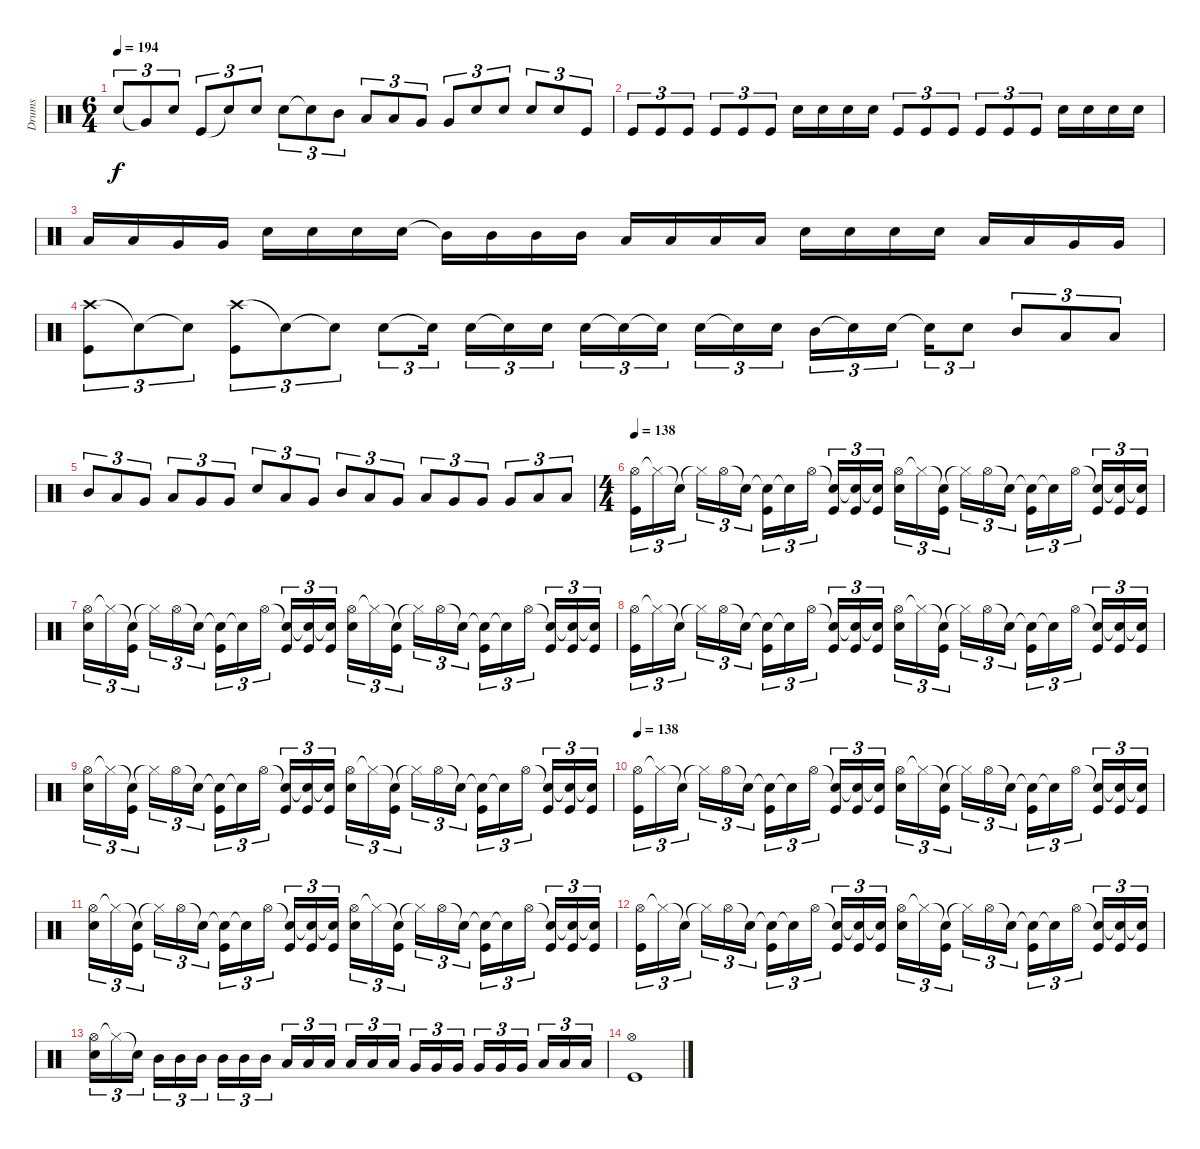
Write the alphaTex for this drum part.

\track ("Drums" "Drums") {instrument percussion}
\staff {score}
\articulation defaults
\ts (6 4)
\tempo 194
\clef neutral
\ks c "Electric Snare (hit)".8{tu (3 2) dy f} "Very Low Tom (hit)"{t}.8{tu (3 2)} "Electric Snare (hit)".8{tu (3 2)} "Kick (hit)".8{tu (3 2)} "Electric Snare (hit)"{t}.8{tu (3 2)} "Electric Snare (hit)".8{tu (3 2)} "Electric Snare (hit)".8{tu (3 2)} "Snare (hit)"{t}.8{tu (3 2)} "Mid Tom (hit)".8{tu (3 2)} "Low Tom (hit)".8{tu (3 2)} "Low Tom (hit)".8{tu (3 2)} "Very Low Tom (hit)".8{tu (3 2)} "Very Low Tom (hit)".8{tu (3 2)} "Electric Snare (hit)".8{tu (3 2)} "Electric Snare (hit)".8{tu (3 2)} "Electric Snare (hit)".8{tu (3 2)} "Electric Snare (hit)".8{tu (3 2)} "Kick (hit)".8{tu (3 2)}
|
"Kick (hit)".8{tu (3 2)} "Kick (hit)".8{tu (3 2)} "Kick (hit)".8{tu (3 2)} "Kick (hit)".8{tu (3 2)} "Kick (hit)".8{tu (3 2)} "Kick (hit)".8{tu (3 2)} "Electric Snare (hit)".16 "Electric Snare (hit)".16 "Electric Snare (hit)".16 "Electric Snare (hit)".16 "Kick (hit)".8{tu (3 2)} "Kick (hit)".8{tu (3 2)} "Kick (hit)".8{tu (3 2)} "Kick (hit)".8{tu (3 2)} "Kick (hit)".8{tu (3 2)} "Kick (hit)".8{tu (3 2)} "Electric Snare (hit)".16 "Electric Snare (hit)".16 "Electric Snare (hit)".16 "Electric Snare (hit)".16 |
"Low Tom (hit)".16 "Low Tom (hit)".16 "Very Low Tom (hit)".16 "Very Low Tom (hit)".16 "Electric Snare (hit)".16 "Electric Snare (hit)".16 "Electric Snare (hit)".16 "Electric Snare (hit)".16 "Mid Tom (hit)"{t}.16 "Mid Tom (hit)".16 "Mid Tom (hit)".16 "Mid Tom (hit)".16 "Low Tom (hit)".16 "Low Tom (hit)".16 "Low Tom (hit)".16 "Low Tom (hit)".16 "Electric Snare (hit)".16 "Electric Snare (hit)".16 "Electric Snare (hit)".16 "Electric Snare (hit)".16 "Low Tom (hit)".16 "Low Tom (hit)".16 "Very Low Tom (hit)".16 "Very Low Tom (hit)".16 |
("Crash high (hit)" "Kick (hit)").8{tu (3 2)} "Snare (hit)"{t}.8{tu (3 2)} "Snare (hit)"{t}.8{tu (3 2)} ("Crash high (hit)" "Kick (hit)").8{tu (3 2)} "Snare (hit)"{t}.8{tu (3 2)} "Snare (hit)"{t}.8{tu (3 2)} "Electric Snare (hit)".8{tu (3 2)} "Snare (hit)"{t}.16{tu (3 2)} "Electric Snare (hit)".16{tu (3 2)} "Snare (hit)"{t}.16{tu (3 2)} "Electric Snare (hit)".16{tu (3 2)} "Electric Snare (hit)".16{tu (3 2)} "Electric Snare (hit)"{t}.16{tu (3 2)} "Snare (hit)"{t}.16{tu (3 2)} "Electric Snare (hit)".16{tu (3 2)} "Snare (hit)"{t}.16{tu (3 2)} "Electric Snare (hit)".16{tu (3 2)} "Mid Tom (hit)".16{tu (3 2)} "Snare (hit)"{t}.16{tu (3 2)} "Electric Snare (hit)".16{tu (3 2)} "Snare (hit)"{t}.16{tu (3 2)} "Electric Snare (hit)".8{tu (3 2)} "Mid Tom (hit)".8{tu (3 2)} "Low Tom (hit)".8{tu (3 2)} "Low Tom (hit)".8{tu (3 2)} |
"Mid Tom (hit)".8{tu (3 2)} "Low Tom (hit)".8{tu (3 2)} "Very Low Tom (hit)".8{tu (3 2)} "Low Tom (hit)".8{tu (3 2)} "Very Low Tom (hit)".8{tu (3 2)} "Very Low Tom (hit)".8{tu (3 2)} "Electric Snare (hit)".8{tu (3 2)} "Low Tom (hit)".8{tu (3 2)} "Very Low Tom (hit)".8{tu (3 2)} "Mid Tom (hit)".8{tu (3 2)} "Low Tom (hit)".8{tu (3 2)} "Very Low Tom (hit)".8{tu (3 2)} "Low Tom (hit)".8{tu (3 2)} "Very Low Tom (hit)".8{tu (3 2)} "Very Low Tom (hit)".8{tu (3 2)} "Very Low Tom (hit)".8{tu (3 2)} "Low Floor Tom (hit)".8{tu (3 2)} "Low Floor Tom (hit)".8{tu (3 2)} |
\ts (4 4)
\tempo 138
("Hi-Hat (open)" "Kick (hit)").16{tu (3 2)} "Hi-Hat (closed)"{t}.16{tu (3 2)} "Snare (hit)"{t}.16{tu (3 2)} "Hi-Hat (closed)"{t}.16{tu (3 2)} "Hi-Hat (open)".16{tu (3 2)} "Snare (hit)"{t}.16{tu (3 2)} ("Snare (hit)"{t} "Kick (hit)").16{tu (3 2)} "Snare (hit)"{t}.16{tu (3 2)} "Hi-Hat (open)".16{tu (3 2)} ("Snare (hit)"{t} "Kick (hit)").16{tu (3 2)} ("Snare (hit)"{t} "Kick (hit)").16{tu (3 2)} ("Snare (hit)"{t} "Kick (hit)").16{tu (3 2)} ("Hi-Hat (open)" "Electric Snare (hit)").16{tu (3 2)} "Hi-Hat (closed)"{t}.16{tu (3 2)} ("Snare (hit)"{t} "Kick (hit)").16{tu (3 2)} "Hi-Hat (closed)"{t}.16{tu (3 2)} "Hi-Hat (open)".16{tu (3 2)} "Snare (hit)"{t}.16{tu (3 2)} ("Snare (hit)"{t} "Kick (hit)").16{tu (3 2)} "Snare (hit)"{t}.16{tu (3 2)} "Hi-Hat (open)".16{tu (3 2)} ("Snare (hit)"{t} "Kick (hit)").16{tu (3 2)} ("Snare (hit)"{t} "Kick (hit)").16{tu (3 2)} ("Snare (hit)"{t} "Kick (hit)").16{tu (3 2)} |
("Hi-Hat (open)" "Electric Snare (hit)").16{tu (3 2)} "Hi-Hat (closed)"{t}.16{tu (3 2)} ("Snare (hit)"{t} "Kick (hit)").16{tu (3 2)} "Hi-Hat (closed)"{t}.16{tu (3 2)} "Hi-Hat (open)".16{tu (3 2)} "Snare (hit)"{t}.16{tu (3 2)} ("Snare (hit)"{t} "Kick (hit)").16{tu (3 2)} "Snare (hit)"{t}.16{tu (3 2)} "Hi-Hat (open)".16{tu (3 2)} ("Snare (hit)"{t} "Kick (hit)").16{tu (3 2)} ("Snare (hit)"{t} "Kick (hit)").16{tu (3 2)} ("Snare (hit)"{t} "Kick (hit)").16{tu (3 2)} ("Hi-Hat (open)" "Electric Snare (hit)").16{tu (3 2)} "Hi-Hat (closed)"{t}.16{tu (3 2)} ("Snare (hit)"{t} "Kick (hit)").16{tu (3 2)} "Hi-Hat (closed)"{t}.16{tu (3 2)} "Hi-Hat (open)".16{tu (3 2)} "Snare (hit)"{t}.16{tu (3 2)} ("Snare (hit)"{t} "Kick (hit)").16{tu (3 2)} "Snare (hit)"{t}.16{tu (3 2)} "Hi-Hat (open)".16{tu (3 2)} ("Snare (hit)"{t} "Kick (hit)").16{tu (3 2)} ("Snare (hit)"{t} "Kick (hit)").16{tu (3 2)} ("Snare (hit)"{t} "Kick (hit)").16{tu (3 2)} |
("Hi-Hat (open)" "Kick (hit)").16{tu (3 2)} "Hi-Hat (closed)"{t}.16{tu (3 2)} "Snare (hit)"{t}.16{tu (3 2)} "Hi-Hat (closed)"{t}.16{tu (3 2)} "Hi-Hat (open)".16{tu (3 2)} "Snare (hit)"{t}.16{tu (3 2)} ("Snare (hit)"{t} "Kick (hit)").16{tu (3 2)} "Snare (hit)"{t}.16{tu (3 2)} "Hi-Hat (open)".16{tu (3 2)} ("Snare (hit)"{t} "Kick (hit)").16{tu (3 2)} ("Snare (hit)"{t} "Kick (hit)").16{tu (3 2)} ("Snare (hit)"{t} "Kick (hit)").16{tu (3 2)} ("Hi-Hat (open)" "Electric Snare (hit)").16{tu (3 2)} "Hi-Hat (closed)"{t}.16{tu (3 2)} ("Snare (hit)"{t} "Kick (hit)").16{tu (3 2)} "Hi-Hat (closed)"{t}.16{tu (3 2)} "Hi-Hat (open)".16{tu (3 2)} "Snare (hit)"{t}.16{tu (3 2)} ("Snare (hit)"{t} "Kick (hit)").16{tu (3 2)} "Snare (hit)"{t}.16{tu (3 2)} "Hi-Hat (open)".16{tu (3 2)} ("Snare (hit)"{t} "Kick (hit)").16{tu (3 2)} ("Snare (hit)"{t} "Kick (hit)").16{tu (3 2)} ("Snare (hit)"{t} "Kick (hit)").16{tu (3 2)} |
("Hi-Hat (open)" "Electric Snare (hit)").16{tu (3 2)} "Hi-Hat (closed)"{t}.16{tu (3 2)} ("Snare (hit)"{t} "Kick (hit)").16{tu (3 2)} "Hi-Hat (closed)"{t}.16{tu (3 2)} "Hi-Hat (open)".16{tu (3 2)} "Snare (hit)"{t}.16{tu (3 2)} ("Snare (hit)"{t} "Kick (hit)").16{tu (3 2)} "Snare (hit)"{t}.16{tu (3 2)} "Hi-Hat (open)".16{tu (3 2)} ("Snare (hit)"{t} "Kick (hit)").16{tu (3 2)} ("Snare (hit)"{t} "Kick (hit)").16{tu (3 2)} ("Snare (hit)"{t} "Kick (hit)").16{tu (3 2)} ("Hi-Hat (open)" "Electric Snare (hit)").16{tu (3 2)} "Hi-Hat (closed)"{t}.16{tu (3 2)} ("Snare (hit)"{t} "Kick (hit)").16{tu (3 2)} "Hi-Hat (closed)"{t}.16{tu (3 2)} "Hi-Hat (open)".16{tu (3 2)} "Snare (hit)"{t}.16{tu (3 2)} ("Snare (hit)"{t} "Kick (hit)").16{tu (3 2)} "Snare (hit)"{t}.16{tu (3 2)} "Hi-Hat (open)".16{tu (3 2)} ("Snare (hit)"{t} "Kick (hit)").16{tu (3 2)} ("Snare (hit)"{t} "Kick (hit)").16{tu (3 2)} ("Snare (hit)"{t} "Kick (hit)").16{tu (3 2)} |
\tempo 138
("Hi-Hat (open)" "Kick (hit)").16{tu (3 2)} "Hi-Hat (closed)"{t}.16{tu (3 2)} "Snare (hit)"{t}.16{tu (3 2)} "Hi-Hat (closed)"{t}.16{tu (3 2)} "Hi-Hat (open)".16{tu (3 2)} "Snare (hit)"{t}.16{tu (3 2)} ("Snare (hit)"{t} "Kick (hit)").16{tu (3 2)} "Snare (hit)"{t}.16{tu (3 2)} "Hi-Hat (open)".16{tu (3 2)} ("Snare (hit)"{t} "Kick (hit)").16{tu (3 2)} ("Snare (hit)"{t} "Kick (hit)").16{tu (3 2)} ("Snare (hit)"{t} "Kick (hit)").16{tu (3 2)} ("Hi-Hat (open)" "Electric Snare (hit)").16{tu (3 2)} "Hi-Hat (closed)"{t}.16{tu (3 2)} ("Snare (hit)"{t} "Kick (hit)").16{tu (3 2)} "Hi-Hat (closed)"{t}.16{tu (3 2)} "Hi-Hat (open)".16{tu (3 2)} "Snare (hit)"{t}.16{tu (3 2)} ("Snare (hit)"{t} "Kick (hit)").16{tu (3 2)} "Snare (hit)"{t}.16{tu (3 2)} "Hi-Hat (open)".16{tu (3 2)} ("Snare (hit)"{t} "Kick (hit)").16{tu (3 2)} ("Snare (hit)"{t} "Kick (hit)").16{tu (3 2)} ("Snare (hit)"{t} "Kick (hit)").16{tu (3 2)} |
("Hi-Hat (open)" "Electric Snare (hit)").16{tu (3 2)} "Hi-Hat (closed)"{t}.16{tu (3 2)} ("Snare (hit)"{t} "Kick (hit)").16{tu (3 2)} "Hi-Hat (closed)"{t}.16{tu (3 2)} "Hi-Hat (open)".16{tu (3 2)} "Snare (hit)"{t}.16{tu (3 2)} ("Snare (hit)"{t} "Kick (hit)").16{tu (3 2)} "Snare (hit)"{t}.16{tu (3 2)} "Hi-Hat (open)".16{tu (3 2)} ("Snare (hit)"{t} "Kick (hit)").16{tu (3 2)} ("Snare (hit)"{t} "Kick (hit)").16{tu (3 2)} ("Snare (hit)"{t} "Kick (hit)").16{tu (3 2)} ("Hi-Hat (open)" "Electric Snare (hit)").16{tu (3 2)} "Hi-Hat (closed)"{t}.16{tu (3 2)} ("Snare (hit)"{t} "Kick (hit)").16{tu (3 2)} "Hi-Hat (closed)"{t}.16{tu (3 2)} "Hi-Hat (open)".16{tu (3 2)} "Snare (hit)"{t}.16{tu (3 2)} ("Snare (hit)"{t} "Kick (hit)").16{tu (3 2)} "Snare (hit)"{t}.16{tu (3 2)} "Hi-Hat (open)".16{tu (3 2)} ("Snare (hit)"{t} "Kick (hit)").16{tu (3 2)} ("Snare (hit)"{t} "Kick (hit)").16{tu (3 2)} ("Snare (hit)"{t} "Kick (hit)").16{tu (3 2)} |
("Hi-Hat (open)" "Kick (hit)").16{tu (3 2)} "Hi-Hat (closed)"{t}.16{tu (3 2)} "Snare (hit)"{t}.16{tu (3 2)} "Hi-Hat (closed)"{t}.16{tu (3 2)} "Hi-Hat (open)".16{tu (3 2)} "Snare (hit)"{t}.16{tu (3 2)} ("Snare (hit)"{t} "Kick (hit)").16{tu (3 2)} "Snare (hit)"{t}.16{tu (3 2)} "Hi-Hat (open)".16{tu (3 2)} ("Snare (hit)"{t} "Kick (hit)").16{tu (3 2)} ("Snare (hit)"{t} "Kick (hit)").16{tu (3 2)} ("Snare (hit)"{t} "Kick (hit)").16{tu (3 2)} ("Hi-Hat (open)" "Electric Snare (hit)").16{tu (3 2)} "Hi-Hat (closed)"{t}.16{tu (3 2)} ("Snare (hit)"{t} "Kick (hit)").16{tu (3 2)} "Hi-Hat (closed)"{t}.16{tu (3 2)} "Hi-Hat (open)".16{tu (3 2)} "Snare (hit)"{t}.16{tu (3 2)} ("Snare (hit)"{t} "Kick (hit)").16{tu (3 2)} "Snare (hit)"{t}.16{tu (3 2)} "Hi-Hat (open)".16{tu (3 2)} ("Snare (hit)"{t} "Kick (hit)").16{tu (3 2)} ("Snare (hit)"{t} "Kick (hit)").16{tu (3 2)} ("Snare (hit)"{t} "Kick (hit)").16{tu (3 2)} |
("Hi-Hat (open)" "Electric Snare (hit)").16{tu (3 2)} "Hi-Hat (closed)"{t}.16{tu (3 2)} "Snare (hit)"{t}.16{tu (3 2)} "Mid Tom (hit)".16{tu (3 2)} "Mid Tom (hit)".16{tu (3 2)} "Mid Tom (hit)".16{tu (3 2)} "Mid Tom (hit)".16{tu (3 2)} "Mid Tom (hit)".16{tu (3 2)} "Mid Tom (hit)".16{tu (3 2)} "Low Tom (hit)".16{tu (3 2)} "Low Tom (hit)".16{tu (3 2)} "Low Tom (hit)".16{tu (3 2)} "Low Tom (hit)".16{tu (3 2)} "Low Tom (hit)".16{tu (3 2)} "Low Tom (hit)".16{tu (3 2)} "Very Low Tom (hit)".16{tu (3 2)} "Very Low Tom (hit)".16{tu (3 2)} "Very Low Tom (hit)".16{tu (3 2)} "Very Low Tom (hit)".16{tu (3 2)} "Very Low Tom (hit)".16{tu (3 2)} "Very Low Tom (hit)".16{tu (3 2)} "Low Floor Tom (hit)".16{tu (3 2)} "Low Floor Tom (hit)".16{tu (3 2)} "Low Floor Tom (hit)".16{tu (3 2)} |
("Hi-Hat (open)" "Kick (hit)").1
